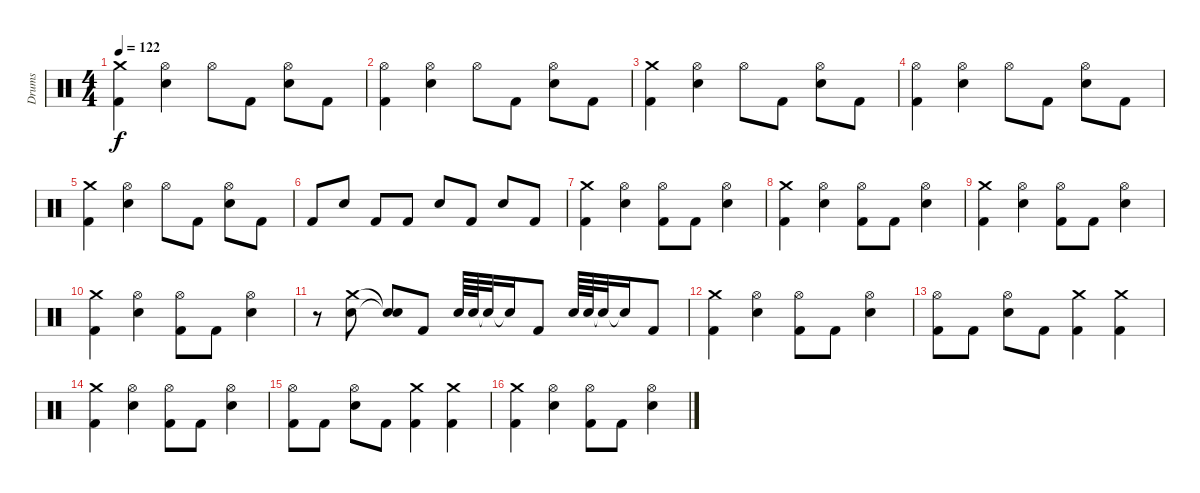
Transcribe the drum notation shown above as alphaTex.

\track ("Drums" "Drums") {instrument percussion}
\staff {score}
\articulation defaults
\ts (4 4)
\tempo 122
\clef neutral
\ks c
("Crash medium (hit)" "Kick (hit) 2").4{dy f} ("Hi-Hat (open)" "Electric Snare (hit)").4 "Hi-Hat (open)".8 "Kick (hit) 2".8 ("Hi-Hat (open)" "Electric Snare (hit)").8 "Kick (hit) 2".8 |
("Hi-Hat (open)" "Kick (hit) 2").4 ("Hi-Hat (open)" "Electric Snare (hit)").4 "Hi-Hat (open)".8 "Kick (hit) 2".8 ("Hi-Hat (open)" "Electric Snare (hit)").8 "Kick (hit) 2".8 |
("Crash medium (hit)" "Kick (hit) 2").4 ("Hi-Hat (open)" "Electric Snare (hit)").4 "Hi-Hat (open)".8 "Kick (hit) 2".8 ("Hi-Hat (open)" "Electric Snare (hit)").8 "Kick (hit) 2".8 |
("Hi-Hat (open)" "Kick (hit) 2").4 ("Hi-Hat (open)" "Electric Snare (hit)").4 "Hi-Hat (open)".8 "Kick (hit) 2".8 ("Hi-Hat (open)" "Electric Snare (hit)").8 "Kick (hit) 2".8 |
("Crash medium (hit)" "Kick (hit) 2").4 ("Hi-Hat (open)" "Electric Snare (hit)").4 "Hi-Hat (open)".8 "Kick (hit) 2".8 ("Hi-Hat (open)" "Electric Snare (hit)").8 "Kick (hit) 2".8 |
"Kick (hit) 2".8 "Electric Snare (hit)".8 "Kick (hit) 2".8 "Kick (hit) 2".8 "Electric Snare (hit)".8 "Kick (hit) 2".8 "Electric Snare (hit)".8 "Kick (hit) 2".8 |
("Crash medium (hit)" "Kick (hit) 2").4 ("Hi-Hat (open)" "Electric Snare (hit)").4 ("Hi-Hat (open)" "Kick (hit) 2").8 "Kick (hit) 2".8 ("Hi-Hat (open)" "Electric Snare (hit)").4 |
("Crash medium (hit)" "Kick (hit) 2").4 ("Hi-Hat (open)" "Electric Snare (hit)").4 ("Hi-Hat (open)" "Kick (hit) 2").8 "Kick (hit) 2".8 ("Hi-Hat (open)" "Electric Snare (hit)").4 |
("Crash medium (hit)" "Kick (hit) 2").4 ("Hi-Hat (open)" "Electric Snare (hit)").4 ("Hi-Hat (open)" "Kick (hit) 2").8 "Kick (hit) 2".8 ("Hi-Hat (open)" "Electric Snare (hit)").4 |
("Crash medium (hit)" "Kick (hit) 2").4 ("Hi-Hat (open)" "Electric Snare (hit)").4 ("Hi-Hat (open)" "Kick (hit) 2").8 "Kick (hit) 2".8 ("Hi-Hat (open)" "Electric Snare (hit)").4 |
r.8 ("Crash medium (hit)" "Electric Snare (hit)").8 ("Snare (hit)"{t} "Snare (hit)"{t}).8 "Kick (hit) 2".8 "Electric Snare (hit)".64 "Electric Snare (hit)".64 "Snare (hit)"{t}.32 "Snare (hit)"{t}.16 "Kick (hit) 2".8 "Electric Snare (hit)".64 "Electric Snare (hit)".64 "Snare (hit)"{t}.32 "Snare (hit)"{t}.16 "Kick (hit) 2".8 |
("Crash medium (hit)" "Kick (hit) 2").4 ("Hi-Hat (open)" "Electric Snare (hit)").4 ("Hi-Hat (open)" "Kick (hit) 2").8 "Kick (hit) 2".8 ("Hi-Hat (open)" "Electric Snare (hit)").4 |
("Hi-Hat (open)" "Kick (hit) 2").8 "Kick (hit) 2".8 ("Hi-Hat (open)" "Electric Snare (hit)").8 "Kick (hit) 2".8 ("Crash medium (hit)" "Kick (hit) 2").4 ("Crash medium (hit)" "Kick (hit) 2").4 |
("Crash medium (hit)" "Kick (hit) 2").4 ("Hi-Hat (open)" "Electric Snare (hit)").4 ("Hi-Hat (open)" "Kick (hit) 2").8 "Kick (hit) 2".8 ("Hi-Hat (open)" "Electric Snare (hit)").4 |
("Hi-Hat (open)" "Kick (hit) 2").8 "Kick (hit) 2".8 ("Hi-Hat (open)" "Electric Snare (hit)").8 "Kick (hit) 2".8 ("Crash medium (hit)" "Kick (hit) 2").4 ("Crash medium (hit)" "Kick (hit) 2").4 |
("Crash medium (hit)" "Kick (hit) 2").4 ("Hi-Hat (open)" "Electric Snare (hit)").4 ("Hi-Hat (open)" "Kick (hit) 2").8 "Kick (hit) 2".8 ("Hi-Hat (open)" "Electric Snare (hit)").4
